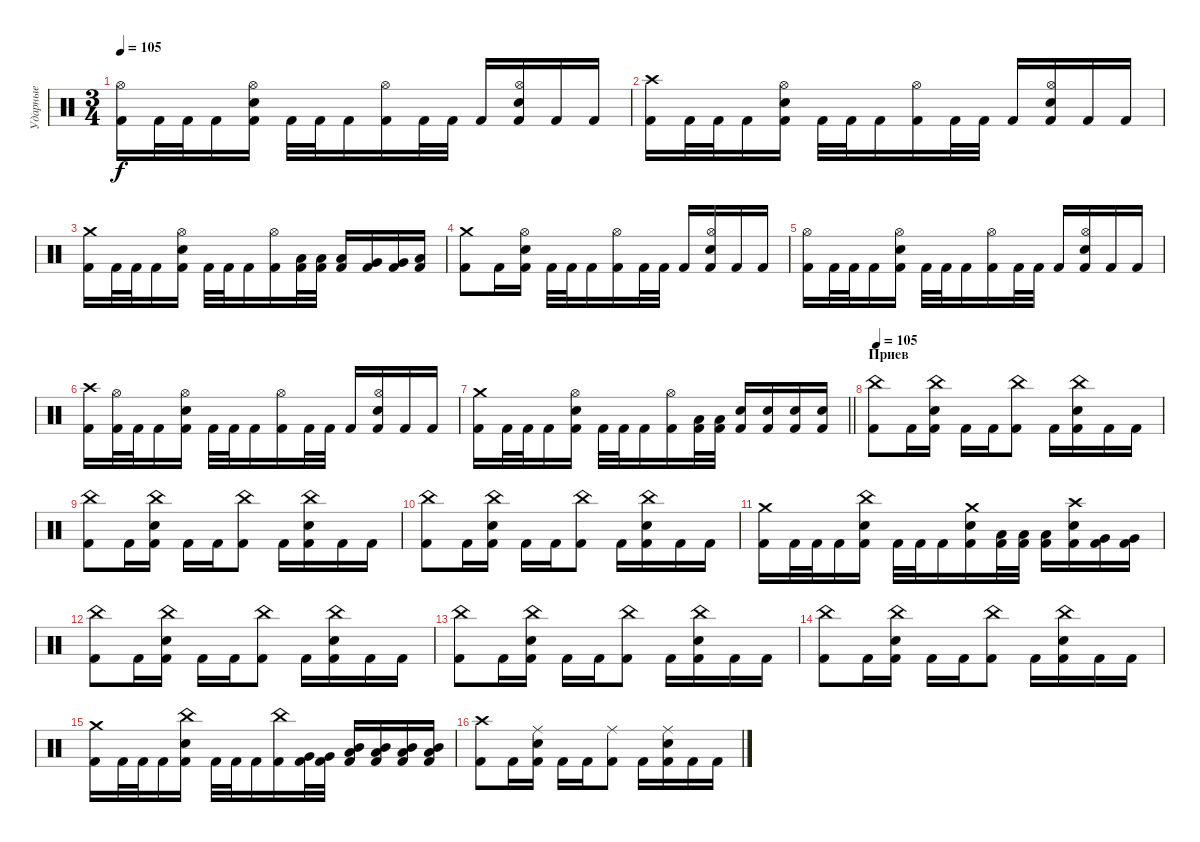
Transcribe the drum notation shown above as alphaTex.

\track ("Ударные" "Ударные") {instrument percussion}
\staff {score}
\articulation defaults
\ts (3 4)
\tempo 105
\clef neutral
\ks c
("Kick (hit) 2" "Hi-Hat (open)").16{dy f} "Kick (hit) 2".32 "Kick (hit) 2".32 "Kick (hit) 2".16 ("Kick (hit) 2" "Snare (hit) 2" "Hi-Hat (open)").16 "Kick (hit) 2".32 "Kick (hit) 2".32 "Kick (hit) 2".16 ("Kick (hit) 2" "Hi-Hat (open)").16 "Kick (hit) 2".32 "Kick (hit) 2".32 "Kick (hit) 2".16 ("Kick (hit) 2" "Snare (hit) 2" "Hi-Hat (open)").16 "Kick (hit) 2".16 "Kick (hit) 2".16 |
("Kick (hit) 2" "Crash high (hit)").16 "Kick (hit) 2".32 "Kick (hit) 2".32 "Kick (hit) 2".16 ("Kick (hit) 2" "Snare (hit) 2" "Hi-Hat (open)").16 "Kick (hit) 2".32 "Kick (hit) 2".32 "Kick (hit) 2".16 ("Kick (hit) 2" "Hi-Hat (open)").16 "Kick (hit) 2".32 "Kick (hit) 2".32 "Kick (hit) 2".16 ("Kick (hit) 2" "Snare (hit) 2" "Hi-Hat (open)").16 "Kick (hit) 2".16 "Kick (hit) 2".16 |
("Kick (hit) 2" "Crash medium (hit)").16 "Kick (hit) 2".32 "Kick (hit) 2".32 "Kick (hit) 2".16 ("Kick (hit) 2" "Snare (hit) 2" "Hi-Hat (open)").16 "Kick (hit) 2".32 "Kick (hit) 2".32 "Kick (hit) 2".16 ("Kick (hit) 2" "Hi-Hat (open)").16 ("Kick (hit) 2" "Low Tom (hit)").32 ("Kick (hit) 2" "Low Tom (hit)").32 ("Kick (hit) 2" "Low Tom (hit)").16 ("Kick (hit) 2" "Very Low Tom (hit)").16 ("Kick (hit) 2" "Very Low Tom (hit)").16 ("Kick (hit) 2" "Low Floor Tom (hit)").16 |
("Kick (hit) 2" "Crash medium (hit)").8 "Kick (hit) 2".16 ("Kick (hit) 2" "Snare (hit) 2" "Hi-Hat (open)").16 "Kick (hit) 2".32 "Kick (hit) 2".32 "Kick (hit) 2".16 ("Kick (hit) 2" "Hi-Hat (open)").16 "Kick (hit) 2".32 "Kick (hit) 2".32 "Kick (hit) 2".16 ("Kick (hit) 2" "Snare (hit) 2" "Hi-Hat (open)").16 "Kick (hit) 2".16 "Kick (hit) 2".16 |
("Kick (hit) 2" "Hi-Hat (open)").16 "Kick (hit) 2".32 "Kick (hit) 2".32 "Kick (hit) 2".16 ("Kick (hit) 2" "Snare (hit) 2" "Hi-Hat (open)").16 "Kick (hit) 2".32 "Kick (hit) 2".32 "Kick (hit) 2".16 ("Kick (hit) 2" "Hi-Hat (open)").16 "Kick (hit) 2".32 "Kick (hit) 2".32 "Kick (hit) 2".16 ("Kick (hit) 2" "Snare (hit) 2" "Hi-Hat (open)").16 "Kick (hit) 2".16 "Kick (hit) 2".16 |
("Kick (hit) 2" "Crash high (hit)").16 ("Kick (hit) 2" "Hi-Hat (open)").32 "Kick (hit) 2".32 "Kick (hit) 2".16 ("Kick (hit) 2" "Snare (hit) 2" "Hi-Hat (open)").16 "Kick (hit) 2".32 "Kick (hit) 2".32 "Kick (hit) 2".16 ("Kick (hit) 2" "Hi-Hat (open)").16 "Kick (hit) 2".32 "Kick (hit) 2".32 "Kick (hit) 2".16 ("Kick (hit) 2" "Snare (hit) 2" "Hi-Hat (open)").16 "Kick (hit) 2".16 "Kick (hit) 2".16 |
\barLineRight lightlight
("Kick (hit) 2" "Crash medium (hit)").16 "Kick (hit) 2".32 "Kick (hit) 2".32 "Kick (hit) 2".16 ("Kick (hit) 2" "Snare (hit) 2" "Hi-Hat (open)").16 "Kick (hit) 2".32 "Kick (hit) 2".32 "Kick (hit) 2".16 ("Kick (hit) 2" "Hi-Hat (open)").16 ("Kick (hit) 2" "Low Tom (hit)").32 ("Kick (hit) 2" "Low Tom (hit)").32 ("Kick (hit) 2" "Snare (hit) 2").16 ("Kick (hit) 2" "Snare (hit) 2").16 ("Kick (hit) 2" "Snare (hit) 2").16 ("Kick (hit) 2" "Snare (hit) 2").16 |
\section ("" "Приев")
\tempo 105
("Kick (hit) 2" "China (hit)").8 "Kick (hit) 2".16 ("Kick (hit) 2" "Snare (hit) 2" "China (hit)").16 "Kick (hit) 2".16 "Kick (hit) 2".16 ("Kick (hit) 2" "China (hit)").8 "Kick (hit) 2".16 ("Kick (hit) 2" "Snare (hit) 2" "China (hit)").16 "Kick (hit) 2".16 "Kick (hit) 2".16 |
("Kick (hit) 2" "China (hit)").8 "Kick (hit) 2".16 ("Kick (hit) 2" "Snare (hit) 2" "China (hit)").16 "Kick (hit) 2".16 "Kick (hit) 2".16 ("Kick (hit) 2" "China (hit)").8 "Kick (hit) 2".16 ("Kick (hit) 2" "Snare (hit) 2" "China (hit)").16 "Kick (hit) 2".16 "Kick (hit) 2".16 |
("Kick (hit) 2" "China (hit)").8 "Kick (hit) 2".16 ("Kick (hit) 2" "Snare (hit) 2" "China (hit)").16 "Kick (hit) 2".16 "Kick (hit) 2".16 ("Kick (hit) 2" "China (hit)").8 "Kick (hit) 2".16 ("Kick (hit) 2" "Snare (hit) 2" "China (hit)").16 "Kick (hit) 2".16 "Kick (hit) 2".16 |
("Kick (hit) 2" "Crash medium (hit)").16 "Kick (hit) 2".32 "Kick (hit) 2".32 "Kick (hit) 2".16 ("Kick (hit) 2" "Snare (hit) 2" "China (hit)").16 "Kick (hit) 2".32 "Kick (hit) 2".32 "Kick (hit) 2".16 ("Kick (hit) 2" "Snare (hit) 2" "Crash medium (hit)").16 ("Kick (hit) 2" "Low Tom (hit)").32 ("Kick (hit) 2" "Low Tom (hit)").32 ("Kick (hit) 2" "Low Tom (hit)").16 ("Kick (hit) 2" "Snare (hit) 2" "Crash high (hit)").16 ("Kick (hit) 2" "Very Low Tom (hit)").16 ("Kick (hit) 2" "Very Low Tom (hit)").16 |
("Kick (hit) 2" "China (hit)").8 "Kick (hit) 2".16 ("Kick (hit) 2" "Snare (hit) 2" "China (hit)").16 "Kick (hit) 2".16 "Kick (hit) 2".16 ("Kick (hit) 2" "China (hit)").8 "Kick (hit) 2".16 ("Kick (hit) 2" "Snare (hit) 2" "China (hit)").16 "Kick (hit) 2".16 "Kick (hit) 2".16 |
("Kick (hit) 2" "China (hit)").8 "Kick (hit) 2".16 ("Kick (hit) 2" "Snare (hit) 2" "China (hit)").16 "Kick (hit) 2".16 "Kick (hit) 2".16 ("Kick (hit) 2" "China (hit)").8 "Kick (hit) 2".16 ("Kick (hit) 2" "Snare (hit) 2" "China (hit)").16 "Kick (hit) 2".16 "Kick (hit) 2".16 |
("Kick (hit) 2" "China (hit)").8 "Kick (hit) 2".16 ("Kick (hit) 2" "Snare (hit) 2" "China (hit)").16 "Kick (hit) 2".16 "Kick (hit) 2".16 ("Kick (hit) 2" "China (hit)").8 "Kick (hit) 2".16 ("Kick (hit) 2" "Snare (hit) 2" "China (hit)").16 "Kick (hit) 2".16 "Kick (hit) 2".16 |
("Kick (hit) 2" "Crash medium (hit)").16 "Kick (hit) 2".32 "Kick (hit) 2".32 "Kick (hit) 2".16 ("Kick (hit) 2" "Snare (hit) 2" "China (hit)").16 "Kick (hit) 2".32 "Kick (hit) 2".32 "Kick (hit) 2".16 ("Kick (hit) 2" "China (hit)").16 ("Kick (hit) 2" "Very Low Tom (hit)").32 ("Kick (hit) 2" "Very Low Tom (hit)").32 ("Kick (hit) 2" "Low Tom (hit)" "Mid Tom (hit)").16 ("Kick (hit) 2" "Low Tom (hit)" "Mid Tom (hit)").16 ("Kick (hit) 2" "Low Tom (hit)" "Mid Tom (hit)").16 ("Kick (hit) 2" "Low Tom (hit)" "Mid Tom (hit)").16 |
("Kick (hit) 2" "Crash high (hit)").8 "Kick (hit) 2".16 ("Kick (hit) 2" "Snare (hit) 2" "Ride (middle)").16 "Kick (hit) 2".16 "Kick (hit) 2".16 ("Kick (hit) 2" "Ride (middle)").8 "Kick (hit) 2".16 ("Kick (hit) 2" "Snare (hit) 2" "Ride (middle)").16 "Kick (hit) 2".16 "Kick (hit) 2".16
